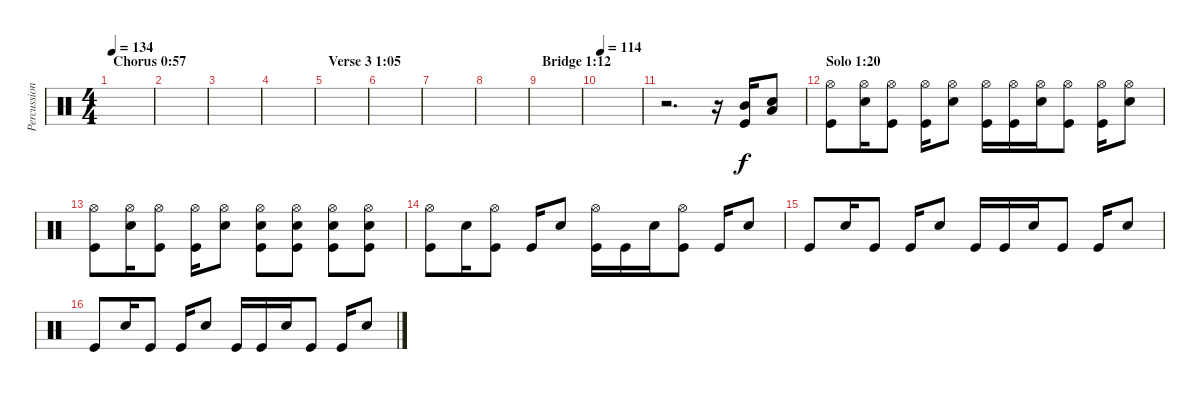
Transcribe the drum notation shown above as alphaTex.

\track ("Percussions" "Percussion") {instrument percussion}
\staff {score}
\articulation defaults
\ts (4 4)
\section ("" "Chorus 0:57")
\tempo 134
\clef neutral
\ks c
|
|
|
|
\section ("" "Verse 3 1:05")
|
|
|
|
\section ("" "Bridge 1:12")
|
\tempo 114
|
r.2{d} r.16 ("Kick (hit)" "Mid Tom (hit)").16 ("Electric Snare (hit)" "Low Tom (hit)").8 |
\section ("" "Solo 1:20")
("Hi-Hat (open)" "Kick (hit)").8 ("Hi-Hat (open)" "Electric Snare (hit)").16 ("Hi-Hat (open)" "Kick (hit)").8 ("Hi-Hat (open)" "Kick (hit)").16 ("Hi-Hat (open)" "Electric Snare (hit)").8 ("Hi-Hat (open)" "Kick (hit)").16 ("Hi-Hat (open)" "Kick (hit)").16 ("Hi-Hat (open)" "Electric Snare (hit)").16 ("Hi-Hat (open)" "Kick (hit)").8 ("Hi-Hat (open)" "Kick (hit)").16 ("Hi-Hat (open)" "Electric Snare (hit)").8 |
("Hi-Hat (open)" "Kick (hit)").8 ("Hi-Hat (open)" "Electric Snare (hit)").16 ("Hi-Hat (open)" "Kick (hit)").8 ("Hi-Hat (open)" "Kick (hit)").16 ("Hi-Hat (open)" "Electric Snare (hit)").8 ("Hi-Hat (open)" "Kick (hit)" "Electric Snare (hit)").8 ("Hi-Hat (open)" "Kick (hit)" "Electric Snare (hit)").8 ("Hi-Hat (open)" "Kick (hit)" "Electric Snare (hit)").8 ("Hi-Hat (open)" "Kick (hit)" "Electric Snare (hit)").8 |
("Hi-Hat (open)" "Kick (hit)").8 "Electric Snare (hit)".16 ("Hi-Hat (open)" "Kick (hit)").8 "Kick (hit)".16 "Electric Snare (hit)".8 ("Hi-Hat (open)" "Kick (hit)").16 "Kick (hit)".16 "Electric Snare (hit)".16 ("Hi-Hat (open)" "Kick (hit)").8 "Kick (hit)".16 "Electric Snare (hit)".8 |
"Kick (hit)".8 "Electric Snare (hit)".16 "Kick (hit)".8 "Kick (hit)".16 "Electric Snare (hit)".8 "Kick (hit)".16 "Kick (hit)".16 "Electric Snare (hit)".16 "Kick (hit)".8 "Kick (hit)".16 "Electric Snare (hit)".8 |
"Kick (hit)".8 "Electric Snare (hit)".16 "Kick (hit)".8 "Kick (hit)".16 "Electric Snare (hit)".8 "Kick (hit)".16 "Kick (hit)".16 "Electric Snare (hit)".16 "Kick (hit)".8 "Kick (hit)".16 "Electric Snare (hit)".8
